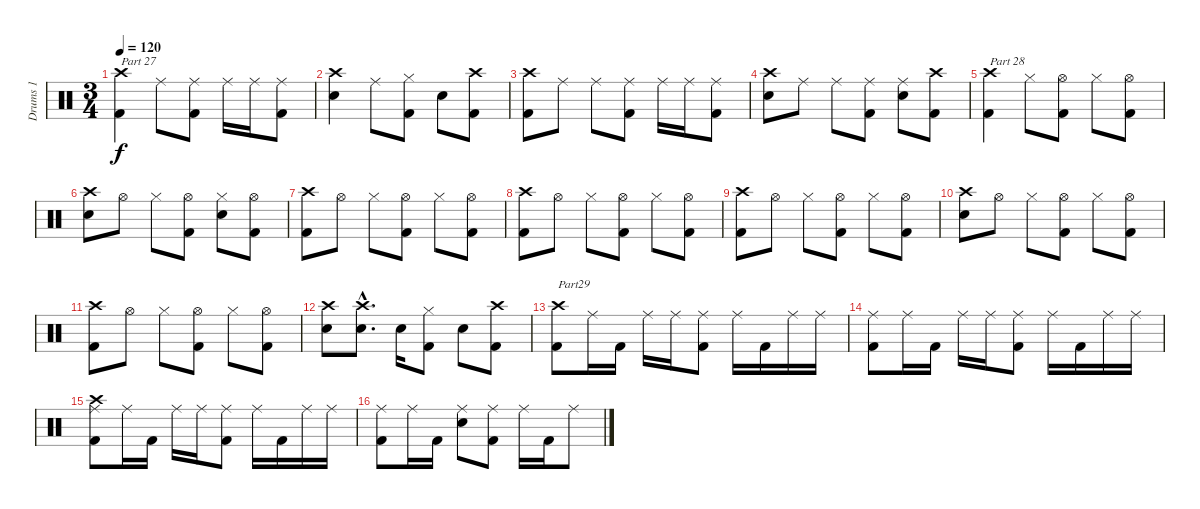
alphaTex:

\track ("Drums 1" "Drums 1") {instrument percussion}
\staff {score}
\articulation defaults
\ts (3 4)
\tempo 120
\clef neutral
\ks c
("Crash high (hit)" "Kick (hit) 2").4{txt "Part 27" dy f} "Ride (middle)".8 ("Ride (middle)" "Kick (hit) 2").8 "Ride (middle)".16 "Ride (middle)".16 ("Ride (middle)" "Kick (hit) 2").8 |
("Crash high (hit)" "Snare (hit) 2").4 "Ride (middle)".8 ("Hi-Hat (closed)" "Kick (hit) 2").8 "Snare (hit) 2".8 ("Crash high (hit)" "Kick (hit) 2").8 |
("Crash high (hit)" "Kick (hit) 2").8 "Ride (middle)".8 "Ride (middle)".8 ("Ride (middle)" "Kick (hit) 2").8 "Ride (middle)".16 "Ride (middle)".16 ("Ride (middle)" "Kick (hit) 2").8 |
("Crash high (hit)" "Snare (hit) 2").8 "Ride (middle)".8 "Ride (middle)".8 ("Ride (middle)" "Kick (hit) 2").8 ("Ride (middle)" "Snare (hit) 2").8 ("Crash high (hit)" "Kick (hit) 2").8 |
("Crash high (hit)" "Kick (hit) 2").4{txt "Part 28"} "Hi-Hat (closed)".8 ("Hi-Hat (open)" "Kick (hit) 2").8 "Hi-Hat (closed)".8 ("Hi-Hat (open)" "Kick (hit) 2").8 |
("Crash high (hit)" "Snare (hit) 2").8 "Hi-Hat (open)".8 "Hi-Hat (closed)".8 ("Hi-Hat (open)" "Kick (hit) 2").8 ("Hi-Hat (closed)" "Snare (hit) 2").8 ("Hi-Hat (open)" "Kick (hit) 2").8 |
("Crash high (hit)" "Kick (hit) 2").8 "Hi-Hat (open)".8 "Hi-Hat (closed)".8 ("Hi-Hat (open)" "Kick (hit) 2").8 "Hi-Hat (closed)".8 ("Hi-Hat (open)" "Kick (hit) 2").8 |
("Crash high (hit)" "Kick (hit) 2").8 "Hi-Hat (open)".8 "Hi-Hat (closed)".8 ("Hi-Hat (open)" "Kick (hit) 2").8 "Hi-Hat (closed)".8 ("Hi-Hat (open)" "Kick (hit) 2").8 |
("Crash high (hit)" "Kick (hit) 2").8 "Hi-Hat (open)".8 "Hi-Hat (closed)".8 ("Hi-Hat (open)" "Kick (hit) 2").8 "Hi-Hat (closed)".8 ("Hi-Hat (open)" "Kick (hit) 2").8 |
("Crash high (hit)" "Snare (hit) 2").8 "Hi-Hat (open)".8 "Hi-Hat (closed)".8 ("Hi-Hat (open)" "Kick (hit) 2").8 "Hi-Hat (closed)".8 ("Hi-Hat (open)" "Kick (hit) 2").8 |
("Crash high (hit)" "Kick (hit) 2").8 "Hi-Hat (open)".8 "Hi-Hat (closed)".8 ("Hi-Hat (open)" "Kick (hit) 2").8 "Hi-Hat (closed)".8 ("Hi-Hat (open)" "Kick (hit) 2").8 |
("Crash high (hit)" "Snare (hit) 2").8 ("Crash high (hit)"{hac} "Snare (hit) 2"{hac}).8{d} "Snare (hit) 2".16 ("Hi-Hat (closed)" "Kick (hit) 2").8 "Snare (hit) 2".8 ("Crash high (hit)" "Kick (hit) 2").8 |
("Crash high (hit)" "Kick (hit) 2").8{txt "Part29"} "Ride (middle)".16 "Kick (hit) 2".16 "Ride (middle)".16 "Ride (middle)".16 ("Ride (middle)" "Kick (hit) 2").8 "Ride (middle)".16 "Kick (hit) 2".16 "Ride (middle)".16 "Ride (middle)".16 |
("Ride (middle)" "Kick (hit) 2").8 "Ride (middle)".16 "Kick (hit) 2".16 "Ride (middle)".16 "Ride (middle)".16 ("Ride (middle)" "Kick (hit) 2").8 "Ride (middle)".16 "Kick (hit) 2".16 "Ride (middle)".16 "Ride (middle)".16 |
("Crash high (hit)" "Ride (middle)" "Kick (hit) 2").8 "Ride (middle)".16 "Kick (hit) 2".16 "Ride (middle)".16 "Ride (middle)".16 ("Ride (middle)" "Kick (hit) 2").8 "Ride (middle)".16 "Kick (hit) 2".16 "Ride (middle)".16 "Ride (middle)".16 |
("Ride (middle)" "Kick (hit) 2").8 "Ride (middle)".16 "Kick (hit) 2".16 ("Ride (middle)" "Snare (hit) 2").8 ("Ride (middle)" "Kick (hit) 2").8 "Ride (middle)".16 "Kick (hit) 2".16 "Ride (middle)".8
